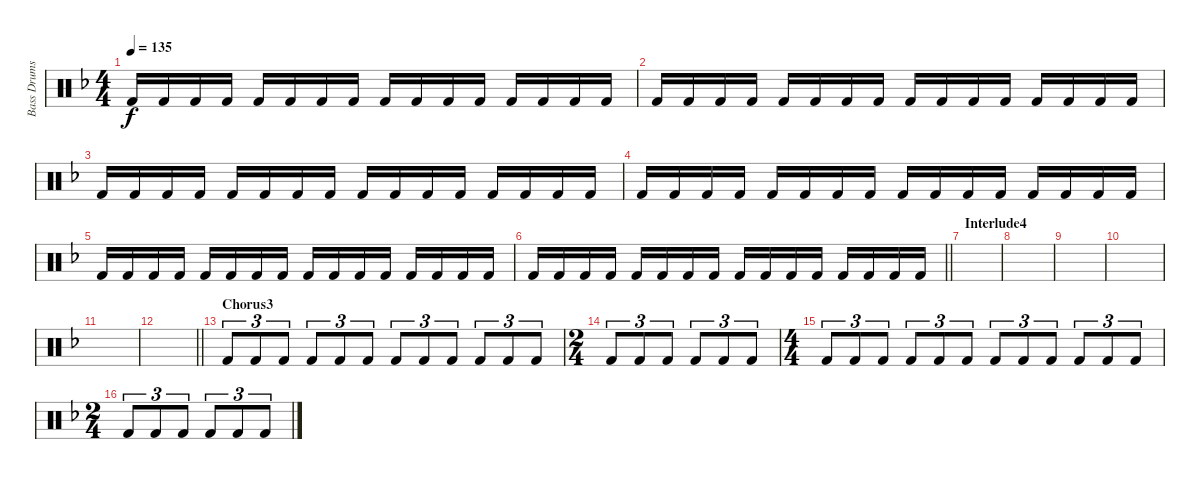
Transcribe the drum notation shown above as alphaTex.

\track ("Bass Drums" "Bass Drums") {instrument percussion}
\staff {score}
\articulation defaults
\ts (4 4)
\tempo 135
\clef neutral
\ks dminor "Kick (hit) 2".16{dy f} "Kick (hit) 2".16 "Kick (hit) 2".16 "Kick (hit) 2".16 "Kick (hit) 2".16 "Kick (hit) 2".16 "Kick (hit) 2".16 "Kick (hit) 2".16 "Kick (hit) 2".16 "Kick (hit) 2".16 "Kick (hit) 2".16 "Kick (hit) 2".16 "Kick (hit) 2".16 "Kick (hit) 2".16 "Kick (hit) 2".16 "Kick (hit) 2".16
|
"Kick (hit) 2".16 "Kick (hit) 2".16 "Kick (hit) 2".16 "Kick (hit) 2".16 "Kick (hit) 2".16 "Kick (hit) 2".16 "Kick (hit) 2".16 "Kick (hit) 2".16 "Kick (hit) 2".16 "Kick (hit) 2".16 "Kick (hit) 2".16 "Kick (hit) 2".16 "Kick (hit) 2".16 "Kick (hit) 2".16 "Kick (hit) 2".16 "Kick (hit) 2".16 |
"Kick (hit) 2".16 "Kick (hit) 2".16 "Kick (hit) 2".16 "Kick (hit) 2".16 "Kick (hit) 2".16 "Kick (hit) 2".16 "Kick (hit) 2".16 "Kick (hit) 2".16 "Kick (hit) 2".16 "Kick (hit) 2".16 "Kick (hit) 2".16 "Kick (hit) 2".16 "Kick (hit) 2".16 "Kick (hit) 2".16 "Kick (hit) 2".16 "Kick (hit) 2".16 |
"Kick (hit) 2".16 "Kick (hit) 2".16 "Kick (hit) 2".16 "Kick (hit) 2".16 "Kick (hit) 2".16 "Kick (hit) 2".16 "Kick (hit) 2".16 "Kick (hit) 2".16 "Kick (hit) 2".16 "Kick (hit) 2".16 "Kick (hit) 2".16 "Kick (hit) 2".16 "Kick (hit) 2".16 "Kick (hit) 2".16 "Kick (hit) 2".16 "Kick (hit) 2".16 |
"Kick (hit) 2".16 "Kick (hit) 2".16 "Kick (hit) 2".16 "Kick (hit) 2".16 "Kick (hit) 2".16 "Kick (hit) 2".16 "Kick (hit) 2".16 "Kick (hit) 2".16 "Kick (hit) 2".16 "Kick (hit) 2".16 "Kick (hit) 2".16 "Kick (hit) 2".16 "Kick (hit) 2".16 "Kick (hit) 2".16 "Kick (hit) 2".16 "Kick (hit) 2".16 |
\barLineRight lightlight "Kick (hit) 2".16 "Kick (hit) 2".16 "Kick (hit) 2".16 "Kick (hit) 2".16 "Kick (hit) 2".16 "Kick (hit) 2".16 "Kick (hit) 2".16 "Kick (hit) 2".16 "Kick (hit) 2".16 "Kick (hit) 2".16 "Kick (hit) 2".16 "Kick (hit) 2".16 "Kick (hit) 2".16 "Kick (hit) 2".16 "Kick (hit) 2".16 "Kick (hit) 2".16
|
\section ("" "Interlude4")
|
|
|
|
|
\barLineRight lightlight
|
\section ("" "Chorus3")
"Kick (hit) 2".8{tu (3 2)} "Kick (hit) 2".8{tu (3 2)} "Kick (hit) 2".8{tu (3 2)} "Kick (hit) 2".8{tu (3 2)} "Kick (hit) 2".8{tu (3 2)} "Kick (hit) 2".8{tu (3 2)} "Kick (hit) 2".8{tu (3 2)} "Kick (hit) 2".8{tu (3 2)} "Kick (hit) 2".8{tu (3 2)} "Kick (hit) 2".8{tu (3 2)} "Kick (hit) 2".8{tu (3 2)} "Kick (hit) 2".8{tu (3 2)} |
\ts (2 4)
"Kick (hit) 2".8{tu (3 2)} "Kick (hit) 2".8{tu (3 2)} "Kick (hit) 2".8{tu (3 2)} "Kick (hit) 2".8{tu (3 2)} "Kick (hit) 2".8{tu (3 2)} "Kick (hit) 2".8{tu (3 2)} |
\ts (4 4)
"Kick (hit) 2".8{tu (3 2)} "Kick (hit) 2".8{tu (3 2)} "Kick (hit) 2".8{tu (3 2)} "Kick (hit) 2".8{tu (3 2)} "Kick (hit) 2".8{tu (3 2)} "Kick (hit) 2".8{tu (3 2)} "Kick (hit) 2".8{tu (3 2)} "Kick (hit) 2".8{tu (3 2)} "Kick (hit) 2".8{tu (3 2)} "Kick (hit) 2".8{tu (3 2)} "Kick (hit) 2".8{tu (3 2)} "Kick (hit) 2".8{tu (3 2)} |
\ts (2 4)
"Kick (hit) 2".8{tu (3 2)} "Kick (hit) 2".8{tu (3 2)} "Kick (hit) 2".8{tu (3 2)} "Kick (hit) 2".8{tu (3 2)} "Kick (hit) 2".8{tu (3 2)} "Kick (hit) 2".8{tu (3 2)}
